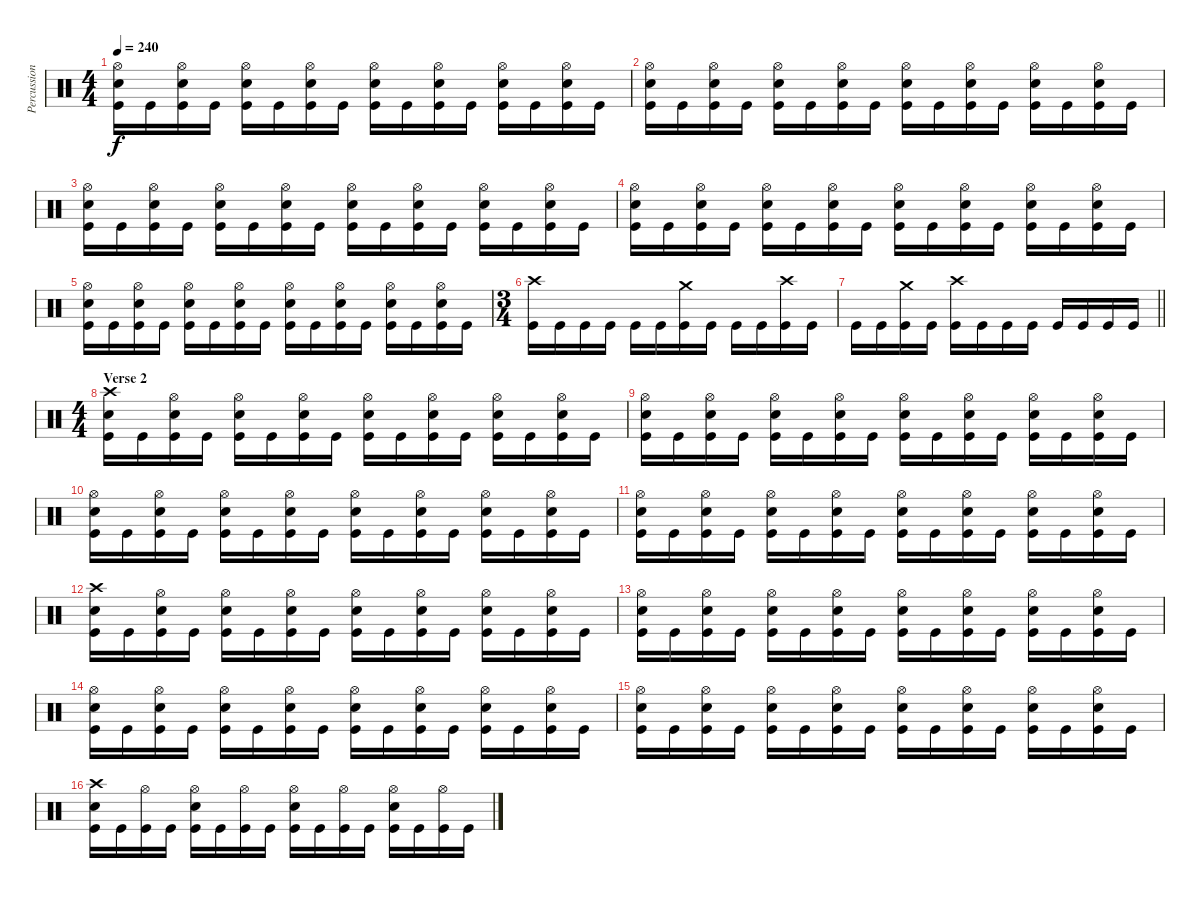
\track ("Percussion" "Percussion") {instrument percussion}
\staff {score}
\articulation defaults
\ts (4 4)
\tempo 240
\clef neutral
\ks c
("Hi-Hat (open)" "Snare (hit) 2" "Kick (hit)").16{dy f} "Kick (hit)".16 ("Hi-Hat (open)" "Snare (hit) 2" "Kick (hit)").16 "Kick (hit)".16 ("Hi-Hat (open)" "Snare (hit) 2" "Kick (hit)").16 "Kick (hit)".16 ("Hi-Hat (open)" "Snare (hit) 2" "Kick (hit)").16 "Kick (hit)".16 ("Hi-Hat (open)" "Snare (hit) 2" "Kick (hit)").16 "Kick (hit)".16 ("Hi-Hat (open)" "Snare (hit) 2" "Kick (hit)").16 "Kick (hit)".16 ("Hi-Hat (open)" "Snare (hit) 2" "Kick (hit)").16 "Kick (hit)".16 ("Hi-Hat (open)" "Snare (hit) 2" "Kick (hit)").16 "Kick (hit)".16 |
("Hi-Hat (open)" "Snare (hit) 2" "Kick (hit)").16 "Kick (hit)".16 ("Hi-Hat (open)" "Snare (hit) 2" "Kick (hit)").16 "Kick (hit)".16 ("Hi-Hat (open)" "Snare (hit) 2" "Kick (hit)").16 "Kick (hit)".16 ("Hi-Hat (open)" "Snare (hit) 2" "Kick (hit)").16 "Kick (hit)".16 ("Hi-Hat (open)" "Snare (hit) 2" "Kick (hit)").16 "Kick (hit)".16 ("Hi-Hat (open)" "Snare (hit) 2" "Kick (hit)").16 "Kick (hit)".16 ("Hi-Hat (open)" "Snare (hit) 2" "Kick (hit)").16 "Kick (hit)".16 ("Hi-Hat (open)" "Snare (hit) 2" "Kick (hit)").16 "Kick (hit)".16 |
("Hi-Hat (open)" "Snare (hit) 2" "Kick (hit)").16 "Kick (hit)".16 ("Hi-Hat (open)" "Snare (hit) 2" "Kick (hit)").16 "Kick (hit)".16 ("Hi-Hat (open)" "Snare (hit) 2" "Kick (hit)").16 "Kick (hit)".16 ("Hi-Hat (open)" "Snare (hit) 2" "Kick (hit)").16 "Kick (hit)".16 ("Hi-Hat (open)" "Snare (hit) 2" "Kick (hit)").16 "Kick (hit)".16 ("Hi-Hat (open)" "Snare (hit) 2" "Kick (hit)").16 "Kick (hit)".16 ("Hi-Hat (open)" "Snare (hit) 2" "Kick (hit)").16 "Kick (hit)".16 ("Hi-Hat (open)" "Snare (hit) 2" "Kick (hit)").16 "Kick (hit)".16 |
("Hi-Hat (open)" "Snare (hit) 2" "Kick (hit)").16 "Kick (hit)".16 ("Hi-Hat (open)" "Snare (hit) 2" "Kick (hit)").16 "Kick (hit)".16 ("Hi-Hat (open)" "Snare (hit) 2" "Kick (hit)").16 "Kick (hit)".16 ("Hi-Hat (open)" "Snare (hit) 2" "Kick (hit)").16 "Kick (hit)".16 ("Hi-Hat (open)" "Snare (hit) 2" "Kick (hit)").16 "Kick (hit)".16 ("Hi-Hat (open)" "Snare (hit) 2" "Kick (hit)").16 "Kick (hit)".16 ("Hi-Hat (open)" "Snare (hit) 2" "Kick (hit)").16 "Kick (hit)".16 ("Hi-Hat (open)" "Snare (hit) 2" "Kick (hit)").16 "Kick (hit)".16 |
("Hi-Hat (open)" "Snare (hit) 2" "Kick (hit)").16 "Kick (hit)".16 ("Hi-Hat (open)" "Snare (hit) 2" "Kick (hit)").16 "Kick (hit)".16 ("Hi-Hat (open)" "Snare (hit) 2" "Kick (hit)").16 "Kick (hit)".16 ("Hi-Hat (open)" "Snare (hit) 2" "Kick (hit)").16 "Kick (hit)".16 ("Hi-Hat (open)" "Snare (hit) 2" "Kick (hit)").16 "Kick (hit)".16 ("Hi-Hat (open)" "Snare (hit) 2" "Kick (hit)").16 "Kick (hit)".16 ("Hi-Hat (open)" "Snare (hit) 2" "Kick (hit)").16 "Kick (hit)".16 ("Hi-Hat (open)" "Snare (hit) 2" "Kick (hit)").16 "Kick (hit)".16 |
\ts (3 4)
("Crash high (hit)" "Kick (hit)").16 "Kick (hit)".16 "Kick (hit)".16 "Kick (hit)".16 "Kick (hit)".16 "Kick (hit)".16 ("Crash medium (hit)" "Kick (hit)").16 "Kick (hit)".16 "Kick (hit)".16 "Kick (hit)".16 ("Crash high (hit)" "Kick (hit)").16 "Kick (hit)".16 |
\barLineRight lightlight "Kick (hit)".16 "Kick (hit)".16
("Crash medium (hit)" "Kick (hit)").16 "Kick (hit)".16 ("Crash high (hit)" "Kick (hit)").16 "Kick (hit)".16 "Kick (hit)".16 "Kick (hit)".16 "Kick (hit)".16 "Kick (hit)".16 "Kick (hit)".16 "Kick (hit)".16 |
\ts (4 4)
\section ("" "Verse 2")
("Crash high (hit)" "Snare (hit) 2" "Kick (hit)").16 "Kick (hit)".16 ("Hi-Hat (open)" "Snare (hit) 2" "Kick (hit)").16 "Kick (hit)".16 ("Hi-Hat (open)" "Snare (hit) 2" "Kick (hit)").16 "Kick (hit)".16 ("Hi-Hat (open)" "Snare (hit) 2" "Kick (hit)").16 "Kick (hit)".16 ("Hi-Hat (open)" "Snare (hit) 2" "Kick (hit)").16 "Kick (hit)".16 ("Hi-Hat (open)" "Snare (hit) 2" "Kick (hit)").16 "Kick (hit)".16 ("Hi-Hat (open)" "Snare (hit) 2" "Kick (hit)").16 "Kick (hit)".16 ("Hi-Hat (open)" "Snare (hit) 2" "Kick (hit)").16 "Kick (hit)".16 |
("Hi-Hat (open)" "Snare (hit) 2" "Kick (hit)").16 "Kick (hit)".16 ("Hi-Hat (open)" "Snare (hit) 2" "Kick (hit)").16 "Kick (hit)".16 ("Hi-Hat (open)" "Snare (hit) 2" "Kick (hit)").16 "Kick (hit)".16 ("Hi-Hat (open)" "Snare (hit) 2" "Kick (hit)").16 "Kick (hit)".16 ("Hi-Hat (open)" "Snare (hit) 2" "Kick (hit)").16 "Kick (hit)".16 ("Hi-Hat (open)" "Snare (hit) 2" "Kick (hit)").16 "Kick (hit)".16 ("Hi-Hat (open)" "Snare (hit) 2" "Kick (hit)").16 "Kick (hit)".16 ("Hi-Hat (open)" "Snare (hit) 2" "Kick (hit)").16 "Kick (hit)".16 |
("Hi-Hat (open)" "Snare (hit) 2" "Kick (hit)").16 "Kick (hit)".16 ("Hi-Hat (open)" "Snare (hit) 2" "Kick (hit)").16 "Kick (hit)".16 ("Hi-Hat (open)" "Snare (hit) 2" "Kick (hit)").16 "Kick (hit)".16 ("Hi-Hat (open)" "Snare (hit) 2" "Kick (hit)").16 "Kick (hit)".16 ("Hi-Hat (open)" "Snare (hit) 2" "Kick (hit)").16 "Kick (hit)".16 ("Hi-Hat (open)" "Snare (hit) 2" "Kick (hit)").16 "Kick (hit)".16 ("Hi-Hat (open)" "Snare (hit) 2" "Kick (hit)").16 "Kick (hit)".16 ("Hi-Hat (open)" "Snare (hit) 2" "Kick (hit)").16 "Kick (hit)".16 |
("Hi-Hat (open)" "Snare (hit) 2" "Kick (hit)").16 "Kick (hit)".16 ("Hi-Hat (open)" "Snare (hit) 2" "Kick (hit)").16 "Kick (hit)".16 ("Hi-Hat (open)" "Snare (hit) 2" "Kick (hit)").16 "Kick (hit)".16 ("Hi-Hat (open)" "Snare (hit) 2" "Kick (hit)").16 "Kick (hit)".16 ("Hi-Hat (open)" "Snare (hit) 2" "Kick (hit)").16 "Kick (hit)".16 ("Hi-Hat (open)" "Snare (hit) 2" "Kick (hit)").16 "Kick (hit)".16 ("Hi-Hat (open)" "Snare (hit) 2" "Kick (hit)").16 "Kick (hit)".16 ("Hi-Hat (open)" "Snare (hit) 2" "Kick (hit)").16 "Kick (hit)".16 |
("Crash high (hit)" "Snare (hit) 2" "Kick (hit)").16 "Kick (hit)".16 ("Hi-Hat (open)" "Snare (hit) 2" "Kick (hit)").16 "Kick (hit)".16 ("Hi-Hat (open)" "Snare (hit) 2" "Kick (hit)").16 "Kick (hit)".16 ("Hi-Hat (open)" "Snare (hit) 2" "Kick (hit)").16 "Kick (hit)".16 ("Hi-Hat (open)" "Snare (hit) 2" "Kick (hit)").16 "Kick (hit)".16 ("Hi-Hat (open)" "Snare (hit) 2" "Kick (hit)").16 "Kick (hit)".16 ("Hi-Hat (open)" "Snare (hit) 2" "Kick (hit)").16 "Kick (hit)".16 ("Hi-Hat (open)" "Snare (hit) 2" "Kick (hit)").16 "Kick (hit)".16 |
("Hi-Hat (open)" "Snare (hit) 2" "Kick (hit)").16 "Kick (hit)".16 ("Hi-Hat (open)" "Snare (hit) 2" "Kick (hit)").16 "Kick (hit)".16 ("Hi-Hat (open)" "Snare (hit) 2" "Kick (hit)").16 "Kick (hit)".16 ("Hi-Hat (open)" "Snare (hit) 2" "Kick (hit)").16 "Kick (hit)".16 ("Hi-Hat (open)" "Snare (hit) 2" "Kick (hit)").16 "Kick (hit)".16 ("Hi-Hat (open)" "Snare (hit) 2" "Kick (hit)").16 "Kick (hit)".16 ("Hi-Hat (open)" "Snare (hit) 2" "Kick (hit)").16 "Kick (hit)".16 ("Hi-Hat (open)" "Snare (hit) 2" "Kick (hit)").16 "Kick (hit)".16 |
("Hi-Hat (open)" "Snare (hit) 2" "Kick (hit)").16 "Kick (hit)".16 ("Hi-Hat (open)" "Snare (hit) 2" "Kick (hit)").16 "Kick (hit)".16 ("Hi-Hat (open)" "Snare (hit) 2" "Kick (hit)").16 "Kick (hit)".16 ("Hi-Hat (open)" "Snare (hit) 2" "Kick (hit)").16 "Kick (hit)".16 ("Hi-Hat (open)" "Snare (hit) 2" "Kick (hit)").16 "Kick (hit)".16 ("Hi-Hat (open)" "Snare (hit) 2" "Kick (hit)").16 "Kick (hit)".16 ("Hi-Hat (open)" "Snare (hit) 2" "Kick (hit)").16 "Kick (hit)".16 ("Hi-Hat (open)" "Snare (hit) 2" "Kick (hit)").16 "Kick (hit)".16 |
("Hi-Hat (open)" "Snare (hit) 2" "Kick (hit)").16 "Kick (hit)".16 ("Hi-Hat (open)" "Snare (hit) 2" "Kick (hit)").16 "Kick (hit)".16 ("Hi-Hat (open)" "Snare (hit) 2" "Kick (hit)").16 "Kick (hit)".16 ("Hi-Hat (open)" "Snare (hit) 2" "Kick (hit)").16 "Kick (hit)".16 ("Hi-Hat (open)" "Snare (hit) 2" "Kick (hit)").16 "Kick (hit)".16 ("Hi-Hat (open)" "Snare (hit) 2" "Kick (hit)").16 "Kick (hit)".16 ("Hi-Hat (open)" "Snare (hit) 2" "Kick (hit)").16 "Kick (hit)".16 ("Hi-Hat (open)" "Snare (hit) 2" "Kick (hit)").16 "Kick (hit)".16 |
("Crash high (hit)" "Snare (hit) 2" "Kick (hit)").16 "Kick (hit)".16 ("Hi-Hat (open)" "Kick (hit)").16 "Kick (hit)".16 ("Hi-Hat (open)" "Snare (hit) 2" "Kick (hit)").16 "Kick (hit)".16 ("Hi-Hat (open)" "Kick (hit)").16 "Kick (hit)".16 ("Hi-Hat (open)" "Snare (hit) 2" "Kick (hit)").16 "Kick (hit)".16 ("Hi-Hat (open)" "Kick (hit)").16 "Kick (hit)".16 ("Hi-Hat (open)" "Snare (hit) 2" "Kick (hit)").16 "Kick (hit)".16 ("Hi-Hat (open)" "Kick (hit)").16 "Kick (hit)".16
